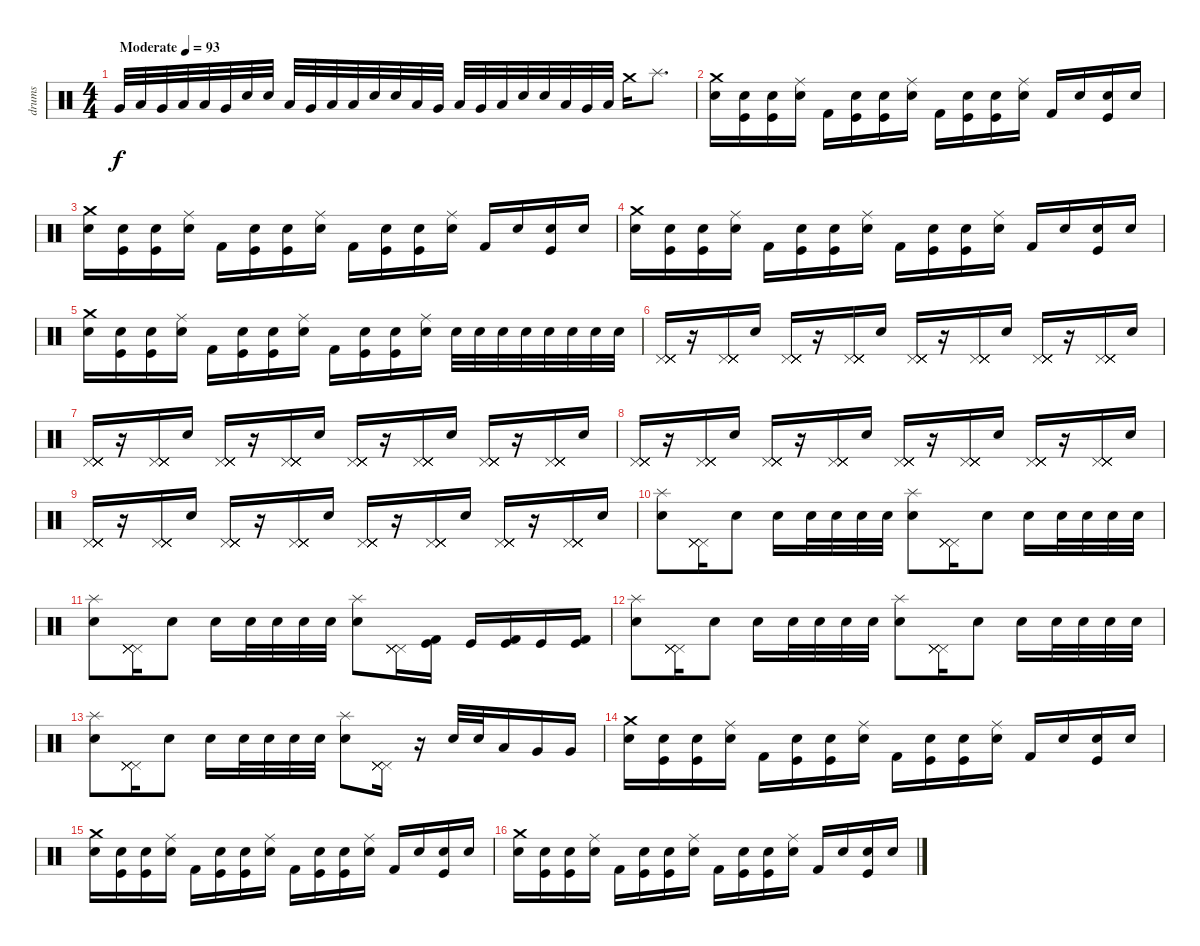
\track ("drums" "drums") {instrument percussion}
\staff {score}
\articulation defaults
\ts (4 4)
\tempo (93 "Moderate")
\clef neutral
\ks c "Very Low Tom (hit)".32{dy f} "Low Floor Tom (hit)".32 "Very Low Tom (hit)".32 "Low Tom (hit)".32 "Low Tom (hit)".32 "Very Low Tom (hit)".32 "Electric Snare (hit)".32 "Snare (hit) 2".32 "Low Tom (hit)".32 "Very Low Tom (hit)".32 "Low Floor Tom (hit)".32 "Low Tom (hit)".32 "Electric Snare (hit)".32 "Snare (hit) 2".32 "Low Tom (hit)".32 "Very Low Tom (hit)".32 "Low Floor Tom (hit)".32 "Very Low Tom (hit)".32 "Low Tom (hit)".32 "Electric Snare (hit)".32 "Snare (hit) 2".32 "Low Tom (hit)".32 "Very Low Tom (hit)".32 "Low Floor Tom (hit)".32 "Crash medium (hit)".16 "Splash (hit)".8{d}
|
("Crash medium (hit)" "Electric Snare (hit)").16 ("Kick (hit)" "Snare (hit) 2").16 ("Kick (hit)" "Snare (hit) 2").16 ("Ride (middle)" "Electric Snare (hit)").16 "Kick (hit) 2".16 ("Kick (hit)" "Snare (hit) 2").16 ("Kick (hit)" "Snare (hit) 2").16 ("Ride (middle)" "Electric Snare (hit)").16 "Kick (hit) 2".16 ("Kick (hit)" "Snare (hit) 2").16 ("Kick (hit)" "Snare (hit) 2").16 ("Ride (middle)" "Electric Snare (hit)").16 "Kick (hit) 2".16 "Electric Snare (hit)".16 ("Snare (hit) 2" "Kick (hit)").16 "Electric Snare (hit)".16 |
("Crash medium (hit)" "Electric Snare (hit)").16 ("Kick (hit)" "Snare (hit) 2").16 ("Kick (hit)" "Snare (hit) 2").16 ("Ride (middle)" "Electric Snare (hit)").16 "Kick (hit) 2".16 ("Kick (hit)" "Snare (hit) 2").16 ("Kick (hit)" "Snare (hit) 2").16 ("Ride (middle)" "Electric Snare (hit)").16 "Kick (hit) 2".16 ("Kick (hit)" "Snare (hit) 2").16 ("Kick (hit)" "Snare (hit) 2").16 ("Ride (middle)" "Electric Snare (hit)").16 "Kick (hit) 2".16 "Electric Snare (hit)".16 ("Snare (hit) 2" "Kick (hit)").16 "Electric Snare (hit)".16 |
("Crash medium (hit)" "Electric Snare (hit)").16 ("Kick (hit)" "Snare (hit) 2").16 ("Kick (hit)" "Snare (hit) 2").16 ("Ride (middle)" "Electric Snare (hit)").16 "Kick (hit) 2".16 ("Kick (hit)" "Snare (hit) 2").16 ("Kick (hit)" "Snare (hit) 2").16 ("Ride (middle)" "Electric Snare (hit)").16 "Kick (hit) 2".16 ("Kick (hit)" "Snare (hit) 2").16 ("Kick (hit)" "Snare (hit) 2").16 ("Ride (middle)" "Electric Snare (hit)").16 "Kick (hit) 2".16 "Electric Snare (hit)".16 ("Snare (hit) 2" "Kick (hit)").16 "Electric Snare (hit)".16 |
("Crash medium (hit)" "Electric Snare (hit)").16 ("Kick (hit)" "Snare (hit) 2").16 ("Kick (hit)" "Snare (hit) 2").16 ("Ride (middle)" "Electric Snare (hit)").16 "Kick (hit) 2".16 ("Kick (hit)" "Snare (hit) 2").16 ("Kick (hit)" "Snare (hit) 2").16 ("Ride (middle)" "Electric Snare (hit)").16 "Kick (hit) 2".16 ("Kick (hit)" "Snare (hit) 2").16 ("Kick (hit)" "Snare (hit) 2").16 ("Ride (middle)" "Electric Snare (hit)").16 "Electric Snare (hit)".32 "Electric Snare (hit)".32 "Electric Snare (hit)".32 "Electric Snare (hit)".32 "Electric Snare (hit)".32 "Electric Snare (hit)".32 "Electric Snare (hit)".32 "Electric Snare (hit)".32 |
("Pedal Hi-Hat (hit)" "Pedal Hi-Hat (hit)" "Pedal Hi-Hat (hit)" "Pedal Hi-Hat (hit)" "Pedal Hi-Hat (hit)" "Pedal Hi-Hat (hit)").16 r.16 ("Pedal Hi-Hat (hit)" "Pedal Hi-Hat (hit)" "Pedal Hi-Hat (hit)" "Pedal Hi-Hat (hit)" "Pedal Hi-Hat (hit)" "Pedal Hi-Hat (hit)").16 "Electric Snare (hit)".16 ("Pedal Hi-Hat (hit)" "Pedal Hi-Hat (hit)" "Pedal Hi-Hat (hit)" "Pedal Hi-Hat (hit)" "Pedal Hi-Hat (hit)" "Pedal Hi-Hat (hit)").16 r.16 ("Pedal Hi-Hat (hit)" "Pedal Hi-Hat (hit)" "Pedal Hi-Hat (hit)" "Pedal Hi-Hat (hit)" "Pedal Hi-Hat (hit)" "Pedal Hi-Hat (hit)").16 "Electric Snare (hit)".16 ("Pedal Hi-Hat (hit)" "Pedal Hi-Hat (hit)" "Pedal Hi-Hat (hit)" "Pedal Hi-Hat (hit)" "Pedal Hi-Hat (hit)" "Pedal Hi-Hat (hit)").16 r.16 ("Pedal Hi-Hat (hit)" "Pedal Hi-Hat (hit)" "Pedal Hi-Hat (hit)" "Pedal Hi-Hat (hit)" "Pedal Hi-Hat (hit)" "Pedal Hi-Hat (hit)").16 "Electric Snare (hit)".16 ("Pedal Hi-Hat (hit)" "Pedal Hi-Hat (hit)" "Pedal Hi-Hat (hit)" "Pedal Hi-Hat (hit)" "Pedal Hi-Hat (hit)" "Pedal Hi-Hat (hit)").16 r.16 ("Pedal Hi-Hat (hit)" "Pedal Hi-Hat (hit)" "Pedal Hi-Hat (hit)" "Pedal Hi-Hat (hit)" "Pedal Hi-Hat (hit)" "Pedal Hi-Hat (hit)").16 "Electric Snare (hit)".16 |
("Pedal Hi-Hat (hit)" "Pedal Hi-Hat (hit)" "Pedal Hi-Hat (hit)" "Pedal Hi-Hat (hit)" "Pedal Hi-Hat (hit)" "Pedal Hi-Hat (hit)").16 r.16 ("Pedal Hi-Hat (hit)" "Pedal Hi-Hat (hit)" "Pedal Hi-Hat (hit)" "Pedal Hi-Hat (hit)" "Pedal Hi-Hat (hit)" "Pedal Hi-Hat (hit)").16 "Electric Snare (hit)".16 ("Pedal Hi-Hat (hit)" "Pedal Hi-Hat (hit)" "Pedal Hi-Hat (hit)" "Pedal Hi-Hat (hit)" "Pedal Hi-Hat (hit)" "Pedal Hi-Hat (hit)").16 r.16 ("Pedal Hi-Hat (hit)" "Pedal Hi-Hat (hit)" "Pedal Hi-Hat (hit)" "Pedal Hi-Hat (hit)" "Pedal Hi-Hat (hit)" "Pedal Hi-Hat (hit)").16 "Electric Snare (hit)".16 ("Pedal Hi-Hat (hit)" "Pedal Hi-Hat (hit)" "Pedal Hi-Hat (hit)" "Pedal Hi-Hat (hit)" "Pedal Hi-Hat (hit)" "Pedal Hi-Hat (hit)").16 r.16 ("Pedal Hi-Hat (hit)" "Pedal Hi-Hat (hit)" "Pedal Hi-Hat (hit)" "Pedal Hi-Hat (hit)" "Pedal Hi-Hat (hit)" "Pedal Hi-Hat (hit)").16 "Electric Snare (hit)".16 ("Pedal Hi-Hat (hit)" "Pedal Hi-Hat (hit)" "Pedal Hi-Hat (hit)" "Pedal Hi-Hat (hit)" "Pedal Hi-Hat (hit)" "Pedal Hi-Hat (hit)").16 r.16 ("Pedal Hi-Hat (hit)" "Pedal Hi-Hat (hit)" "Pedal Hi-Hat (hit)" "Pedal Hi-Hat (hit)" "Pedal Hi-Hat (hit)" "Pedal Hi-Hat (hit)").16 "Electric Snare (hit)".16 |
("Pedal Hi-Hat (hit)" "Pedal Hi-Hat (hit)" "Pedal Hi-Hat (hit)" "Pedal Hi-Hat (hit)" "Pedal Hi-Hat (hit)" "Pedal Hi-Hat (hit)").16 r.16 ("Pedal Hi-Hat (hit)" "Pedal Hi-Hat (hit)" "Pedal Hi-Hat (hit)" "Pedal Hi-Hat (hit)" "Pedal Hi-Hat (hit)" "Pedal Hi-Hat (hit)").16 "Electric Snare (hit)".16 ("Pedal Hi-Hat (hit)" "Pedal Hi-Hat (hit)" "Pedal Hi-Hat (hit)" "Pedal Hi-Hat (hit)" "Pedal Hi-Hat (hit)" "Pedal Hi-Hat (hit)").16 r.16 ("Pedal Hi-Hat (hit)" "Pedal Hi-Hat (hit)" "Pedal Hi-Hat (hit)" "Pedal Hi-Hat (hit)" "Pedal Hi-Hat (hit)" "Pedal Hi-Hat (hit)").16 "Electric Snare (hit)".16 ("Pedal Hi-Hat (hit)" "Pedal Hi-Hat (hit)" "Pedal Hi-Hat (hit)" "Pedal Hi-Hat (hit)" "Pedal Hi-Hat (hit)" "Pedal Hi-Hat (hit)").16 r.16 ("Pedal Hi-Hat (hit)" "Pedal Hi-Hat (hit)" "Pedal Hi-Hat (hit)" "Pedal Hi-Hat (hit)" "Pedal Hi-Hat (hit)" "Pedal Hi-Hat (hit)").16 "Electric Snare (hit)".16 ("Pedal Hi-Hat (hit)" "Pedal Hi-Hat (hit)" "Pedal Hi-Hat (hit)" "Pedal Hi-Hat (hit)" "Pedal Hi-Hat (hit)" "Pedal Hi-Hat (hit)").16 r.16 ("Pedal Hi-Hat (hit)" "Pedal Hi-Hat (hit)" "Pedal Hi-Hat (hit)" "Pedal Hi-Hat (hit)" "Pedal Hi-Hat (hit)" "Pedal Hi-Hat (hit)").16 "Electric Snare (hit)".16 |
("Pedal Hi-Hat (hit)" "Pedal Hi-Hat (hit)" "Pedal Hi-Hat (hit)" "Pedal Hi-Hat (hit)" "Pedal Hi-Hat (hit)" "Pedal Hi-Hat (hit)").16 r.16 ("Pedal Hi-Hat (hit)" "Pedal Hi-Hat (hit)" "Pedal Hi-Hat (hit)" "Pedal Hi-Hat (hit)" "Pedal Hi-Hat (hit)" "Pedal Hi-Hat (hit)").16 "Electric Snare (hit)".16 ("Pedal Hi-Hat (hit)" "Pedal Hi-Hat (hit)" "Pedal Hi-Hat (hit)" "Pedal Hi-Hat (hit)" "Pedal Hi-Hat (hit)" "Pedal Hi-Hat (hit)").16 r.16 ("Pedal Hi-Hat (hit)" "Pedal Hi-Hat (hit)" "Pedal Hi-Hat (hit)" "Pedal Hi-Hat (hit)" "Pedal Hi-Hat (hit)" "Pedal Hi-Hat (hit)").16 "Electric Snare (hit)".16 ("Pedal Hi-Hat (hit)" "Pedal Hi-Hat (hit)" "Pedal Hi-Hat (hit)" "Pedal Hi-Hat (hit)" "Pedal Hi-Hat (hit)" "Pedal Hi-Hat (hit)").16 r.16 ("Pedal Hi-Hat (hit)" "Pedal Hi-Hat (hit)" "Pedal Hi-Hat (hit)" "Pedal Hi-Hat (hit)" "Pedal Hi-Hat (hit)" "Pedal Hi-Hat (hit)").16 "Electric Snare (hit)".16 ("Pedal Hi-Hat (hit)" "Pedal Hi-Hat (hit)" "Pedal Hi-Hat (hit)" "Pedal Hi-Hat (hit)" "Pedal Hi-Hat (hit)" "Pedal Hi-Hat (hit)").16 r.16 ("Pedal Hi-Hat (hit)" "Pedal Hi-Hat (hit)" "Pedal Hi-Hat (hit)" "Pedal Hi-Hat (hit)" "Pedal Hi-Hat (hit)" "Pedal Hi-Hat (hit)").16 "Electric Snare (hit)".16 |
("Electric Snare (hit)" "Splash (hit)").8 ("Pedal Hi-Hat (hit)" "Pedal Hi-Hat (hit)" "Pedal Hi-Hat (hit)" "Pedal Hi-Hat (hit)").16 "Electric Snare (hit)".8 "Electric Snare (hit)".16 "Electric Snare (hit)".32 "Electric Snare (hit)".32 "Electric Snare (hit)".32 "Electric Snare (hit)".32 ("Electric Snare (hit)" "Splash (hit)").8 ("Pedal Hi-Hat (hit)" "Pedal Hi-Hat (hit)" "Pedal Hi-Hat (hit)" "Pedal Hi-Hat (hit)").16 "Electric Snare (hit)".8 "Electric Snare (hit)".16 "Electric Snare (hit)".32 "Electric Snare (hit)".32 "Electric Snare (hit)".32 "Electric Snare (hit)".32 |
("Electric Snare (hit)" "Splash (hit)").8 ("Pedal Hi-Hat (hit)" "Pedal Hi-Hat (hit)" "Pedal Hi-Hat (hit)" "Pedal Hi-Hat (hit)").16 "Electric Snare (hit)".8 "Electric Snare (hit)".16 "Electric Snare (hit)".32 "Electric Snare (hit)".32 "Electric Snare (hit)".32 "Electric Snare (hit)".32 ("Electric Snare (hit)" "Splash (hit)").8 ("Pedal Hi-Hat (hit)" "Pedal Hi-Hat (hit)" "Pedal Hi-Hat (hit)" "Pedal Hi-Hat (hit)").16 ("Kick (hit)" "Kick (hit) 2").16 "Kick (hit)".16 ("Kick (hit)" "Kick (hit) 2").16 "Kick (hit)".16 ("Kick (hit)" "Kick (hit) 2").16 |
("Electric Snare (hit)" "Splash (hit)").8 ("Pedal Hi-Hat (hit)" "Pedal Hi-Hat (hit)" "Pedal Hi-Hat (hit)" "Pedal Hi-Hat (hit)").16 "Electric Snare (hit)".8 "Electric Snare (hit)".16 "Electric Snare (hit)".32 "Electric Snare (hit)".32 "Electric Snare (hit)".32 "Electric Snare (hit)".32 ("Electric Snare (hit)" "Splash (hit)").8 ("Pedal Hi-Hat (hit)" "Pedal Hi-Hat (hit)" "Pedal Hi-Hat (hit)" "Pedal Hi-Hat (hit)").16 "Electric Snare (hit)".8 "Electric Snare (hit)".16 "Electric Snare (hit)".32 "Electric Snare (hit)".32 "Electric Snare (hit)".32 "Electric Snare (hit)".32 |
("Electric Snare (hit)" "Splash (hit)").8 ("Pedal Hi-Hat (hit)" "Pedal Hi-Hat (hit)" "Pedal Hi-Hat (hit)" "Pedal Hi-Hat (hit)").16 "Electric Snare (hit)".8 "Electric Snare (hit)".16 "Electric Snare (hit)".32 "Electric Snare (hit)".32 "Electric Snare (hit)".32 "Electric Snare (hit)".32 ("Electric Snare (hit)" "Splash (hit)").8 ("Pedal Hi-Hat (hit)" "Pedal Hi-Hat (hit)" "Pedal Hi-Hat (hit)" "Pedal Hi-Hat (hit)").16 r.16 "Electric Snare (hit)".32 "Electric Snare (hit)".32 "Low Tom (hit)".16 "Very Low Tom (hit)".16 "Very Low Tom (hit)".16 |
("Crash medium (hit)" "Electric Snare (hit)").16 ("Kick (hit)" "Snare (hit) 2").16 ("Kick (hit)" "Snare (hit) 2").16 ("Ride (middle)" "Electric Snare (hit)").16 "Kick (hit) 2".16 ("Kick (hit)" "Snare (hit) 2").16 ("Kick (hit)" "Snare (hit) 2").16 ("Ride (middle)" "Electric Snare (hit)").16 "Kick (hit) 2".16 ("Kick (hit)" "Snare (hit) 2").16 ("Kick (hit)" "Snare (hit) 2").16 ("Ride (middle)" "Electric Snare (hit)").16 "Kick (hit) 2".16 "Electric Snare (hit)".16 ("Snare (hit) 2" "Kick (hit)").16 "Electric Snare (hit)".16 |
("Crash medium (hit)" "Electric Snare (hit)").16 ("Kick (hit)" "Snare (hit) 2").16 ("Kick (hit)" "Snare (hit) 2").16 ("Ride (middle)" "Electric Snare (hit)").16 "Kick (hit) 2".16 ("Kick (hit)" "Snare (hit) 2").16 ("Kick (hit)" "Snare (hit) 2").16 ("Ride (middle)" "Electric Snare (hit)").16 "Kick (hit) 2".16 ("Kick (hit)" "Snare (hit) 2").16 ("Kick (hit)" "Snare (hit) 2").16 ("Ride (middle)" "Electric Snare (hit)").16 "Kick (hit) 2".16 "Electric Snare (hit)".16 ("Snare (hit) 2" "Kick (hit)").16 "Electric Snare (hit)".16 |
("Crash medium (hit)" "Electric Snare (hit)").16 ("Kick (hit)" "Snare (hit) 2").16 ("Kick (hit)" "Snare (hit) 2").16 ("Ride (middle)" "Electric Snare (hit)").16 "Kick (hit) 2".16 ("Kick (hit)" "Snare (hit) 2").16 ("Kick (hit)" "Snare (hit) 2").16 ("Ride (middle)" "Electric Snare (hit)").16 "Kick (hit) 2".16 ("Kick (hit)" "Snare (hit) 2").16 ("Kick (hit)" "Snare (hit) 2").16 ("Ride (middle)" "Electric Snare (hit)").16 "Kick (hit) 2".16 "Electric Snare (hit)".16 ("Snare (hit) 2" "Kick (hit)").16 "Electric Snare (hit)".16
